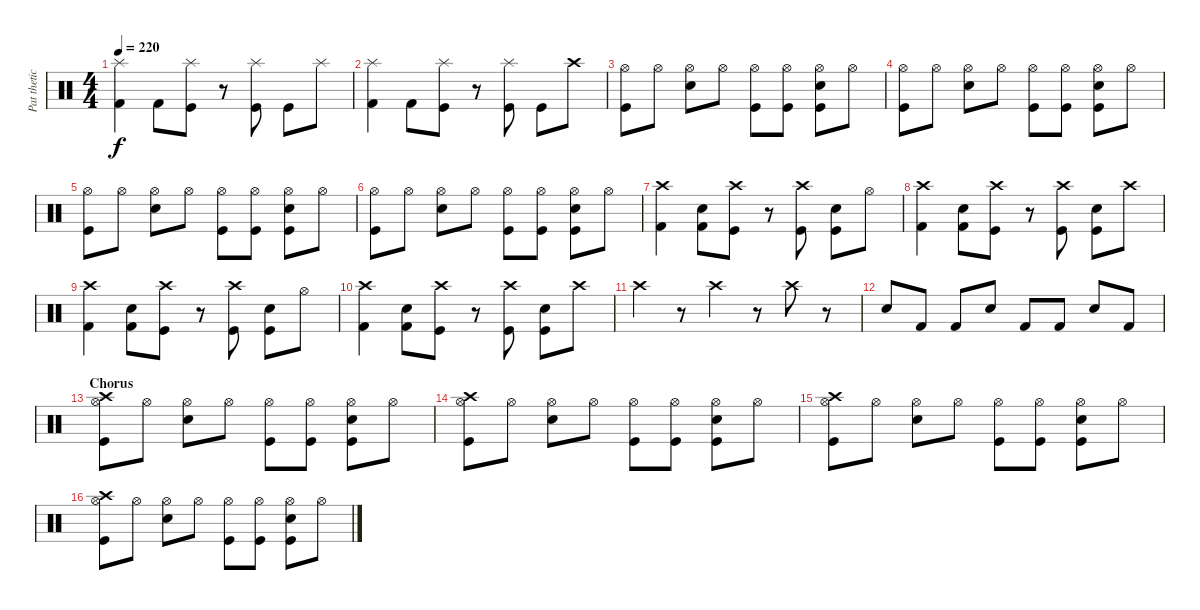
\track ("Pat thetic " "Pat thetic") {instrument percussion}
\staff {score}
\articulation defaults
\ts (4 4)
\tempo 220
\clef neutral
\ks c
("Kick (hit) 2" "Splash (hit)").4{dy f} "Kick (hit) 2".8 ("Kick (hit)" "Splash (hit)").8 r.8 ("Kick (hit)" "Splash (hit)").8 "Kick (hit)".8 "Splash (hit)".8 |
("Kick (hit) 2" "Splash (hit)").4 "Kick (hit) 2".8 ("Kick (hit)" "Splash (hit)").8 r.8 ("Kick (hit)" "Splash (hit)").8 "Kick (hit)".8 "Crash high (hit)".8 |
("Kick (hit)" "Hi-Hat (open)").8 "Hi-Hat (open)".8 ("Electric Snare (hit)" "Hi-Hat (open)").8 "Hi-Hat (open)".8 ("Kick (hit)" "Hi-Hat (open)").8 ("Kick (hit)" "Hi-Hat (open)").8 ("Kick (hit)" "Electric Snare (hit)" "Hi-Hat (open)").8 "Hi-Hat (open)".8 |
("Kick (hit)" "Hi-Hat (open)").8 "Hi-Hat (open)".8 ("Electric Snare (hit)" "Hi-Hat (open)").8 "Hi-Hat (open)".8 ("Kick (hit)" "Hi-Hat (open)").8 ("Kick (hit)" "Hi-Hat (open)").8 ("Kick (hit)" "Electric Snare (hit)" "Hi-Hat (open)").8 "Hi-Hat (open)".8 |
("Kick (hit)" "Hi-Hat (open)").8 "Hi-Hat (open)".8 ("Electric Snare (hit)" "Hi-Hat (open)").8 "Hi-Hat (open)".8 ("Kick (hit)" "Hi-Hat (open)").8 ("Kick (hit)" "Hi-Hat (open)").8 ("Kick (hit)" "Electric Snare (hit)" "Hi-Hat (open)").8 "Hi-Hat (open)".8 |
("Kick (hit)" "Hi-Hat (open)").8 "Hi-Hat (open)".8 ("Electric Snare (hit)" "Hi-Hat (open)").8 "Hi-Hat (open)".8 ("Kick (hit)" "Hi-Hat (open)").8 ("Kick (hit)" "Hi-Hat (open)").8 ("Kick (hit)" "Electric Snare (hit)" "Hi-Hat (open)").8 "Hi-Hat (open)".8 |
("Kick (hit) 2" "Crash high (hit)").4 ("Kick (hit) 2" "Electric Snare (hit)").8 ("Kick (hit)" "Crash high (hit)").8 r.8 ("Kick (hit)" "Crash high (hit)").8 ("Kick (hit)" "Electric Snare (hit)").8 "Hi-Hat (open)".8 |
("Kick (hit) 2" "Crash high (hit)").4 ("Kick (hit) 2" "Electric Snare (hit)").8 ("Kick (hit)" "Crash high (hit)").8 r.8 ("Kick (hit)" "Crash high (hit)").8 ("Kick (hit)" "Electric Snare (hit)").8 "Crash high (hit)".8 |
("Kick (hit) 2" "Crash high (hit)").4 ("Kick (hit) 2" "Electric Snare (hit)").8 ("Kick (hit)" "Crash high (hit)").8 r.8 ("Kick (hit)" "Crash high (hit)").8 ("Kick (hit)" "Electric Snare (hit)").8 "Hi-Hat (open)".8 |
("Kick (hit) 2" "Crash high (hit)").4 ("Kick (hit) 2" "Electric Snare (hit)").8 ("Kick (hit)" "Crash high (hit)").8 r.8 ("Kick (hit)" "Crash high (hit)").8 ("Kick (hit)" "Electric Snare (hit)").8 "Crash high (hit)".8 |
"Crash high (hit)".4 r.8 "Crash high (hit)".4 r.8 "Crash high (hit)".8 r.8 |
"Electric Snare (hit)".8 "Kick (hit) 2".8 "Kick (hit) 2".8 "Electric Snare (hit)".8 "Kick (hit) 2".8 "Kick (hit) 2".8 "Electric Snare (hit)".8 "Kick (hit) 2".8 |
\section ("" "Chorus")
("Kick (hit)" "Crash high (hit)" "Hi-Hat (open)").8 "Hi-Hat (open)".8 ("Electric Snare (hit)" "Hi-Hat (open)").8 "Hi-Hat (open)".8 ("Kick (hit)" "Hi-Hat (open)").8 ("Kick (hit)" "Hi-Hat (open)").8 ("Kick (hit)" "Electric Snare (hit)" "Hi-Hat (open)").8 "Hi-Hat (open)".8 |
("Kick (hit)" "Crash high (hit)" "Hi-Hat (open)").8 "Hi-Hat (open)".8 ("Electric Snare (hit)" "Hi-Hat (open)").8 "Hi-Hat (open)".8 ("Kick (hit)" "Hi-Hat (open)").8 ("Kick (hit)" "Hi-Hat (open)").8 ("Kick (hit)" "Electric Snare (hit)" "Hi-Hat (open)").8 "Hi-Hat (open)".8 |
("Kick (hit)" "Crash high (hit)" "Hi-Hat (open)").8 "Hi-Hat (open)".8 ("Electric Snare (hit)" "Hi-Hat (open)").8 "Hi-Hat (open)".8 ("Kick (hit)" "Hi-Hat (open)").8 ("Kick (hit)" "Hi-Hat (open)").8 ("Kick (hit)" "Electric Snare (hit)" "Hi-Hat (open)").8 "Hi-Hat (open)".8 |
("Kick (hit)" "Crash high (hit)" "Hi-Hat (open)").8 "Hi-Hat (open)".8 ("Electric Snare (hit)" "Hi-Hat (open)").8 "Hi-Hat (open)".8 ("Kick (hit)" "Hi-Hat (open)").8 ("Kick (hit)" "Hi-Hat (open)").8 ("Kick (hit)" "Electric Snare (hit)" "Hi-Hat (open)").8 "Hi-Hat (open)".8
